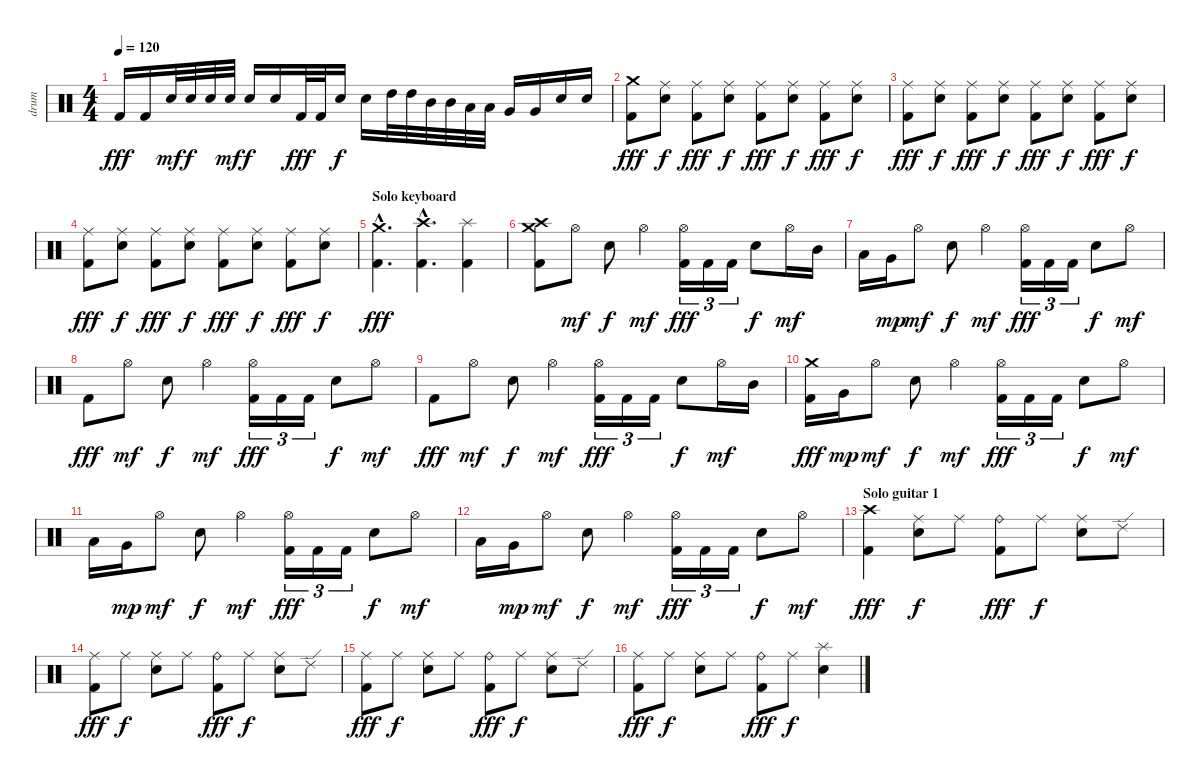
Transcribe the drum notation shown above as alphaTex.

\track ("drum" "drum") {instrument percussion}
\staff {score}
\articulation defaults
\ts (4 4)
\tempo 120
\clef neutral
\ks c "Kick (hit) 2".16{dy fff} "Kick (hit) 2".16 "Electric Snare (hit)".32{dy mf} "Electric Snare (hit)".32{dy f} "Electric Snare (hit)".32 "Electric Snare (hit)".32{dy mf} "Electric Snare (hit)".16{dy f} "Electric Snare (hit)".16 "Kick (hit) 2".32{dy fff} "Kick (hit) 2".32 "Electric Snare (hit)".16{dy f} "Electric Snare (hit)".16 "High Tom (hit)".32 "High Tom (hit)".32 "Mid Tom (hit)".32 "Mid Tom (hit)".32 "Low Tom (hit)".32 "Low Tom (hit)".32 "Very Low Tom (hit)".16 "Very Low Tom (hit)".16 "Electric Snare (hit)".16 "Electric Snare (hit)".16
|
("Crash medium (hit)" "Kick (hit) 2").8{dy fff} ("Ride (middle)" "Electric Snare (hit)").8{dy f} ("Ride (middle)" "Kick (hit) 2").8{dy fff} ("Ride (middle)" "Electric Snare (hit)").8{dy f} ("Ride (middle)" "Kick (hit) 2").8{dy fff} ("Ride (middle)" "Electric Snare (hit)").8{dy f} ("Ride (middle)" "Kick (hit) 2").8{dy fff} ("Ride (middle)" "Electric Snare (hit)").8{dy f} |
("Ride (middle)" "Kick (hit) 2").8{dy fff} ("Ride (middle)" "Electric Snare (hit)").8{dy f} ("Ride (middle)" "Kick (hit) 2").8{dy fff} ("Ride (middle)" "Electric Snare (hit)").8{dy f} ("Ride (middle)" "Kick (hit) 2").8{dy fff} ("Ride (middle)" "Electric Snare (hit)").8{dy f} ("Ride (middle)" "Kick (hit) 2").8{dy fff} ("Ride (middle)" "Electric Snare (hit)").8{dy f} |
("Ride (middle)" "Kick (hit) 2").8{dy fff} ("Ride (middle)" "Electric Snare (hit)").8{dy f} ("Ride (middle)" "Kick (hit) 2").8{dy fff} ("Ride (middle)" "Electric Snare (hit)").8{dy f} ("Ride (middle)" "Kick (hit) 2").8{dy fff} ("Ride (middle)" "Electric Snare (hit)").8{dy f} ("Ride (middle)" "Kick (hit) 2").8{dy fff} ("Ride (middle)" "Electric Snare (hit)").8{dy f} |
\section ("" "Solo keyboard")
("Crash medium (hit)"{hac} "Kick (hit) 2"{hac}).4{d dy fff} ("Crash high (hit)"{hac} "Kick (hit) 2"{hac}).4{d} ("Splash (hit)" "Kick (hit) 2").4 |
("Crash high (hit)" "Crash medium (hit)" "Kick (hit) 2").8 "Hi-Hat (open)".8{dy mf} "Electric Snare (hit)".8{dy f} "Hi-Hat (open)".4{dy mf} ("Hi-Hat (open)" "Kick (hit) 2").16{tu (3 2) dy fff} "Kick (hit) 2".16{tu (3 2)} "Kick (hit) 2".16{tu (3 2)} "Electric Snare (hit)".8{dy f} "Hi-Hat (open)".16{dy mf} "Mid Tom (hit)".16 |
"Low Tom (hit)".16 "Very Low Tom (hit)".16{dy mp} "Hi-Hat (open)".8{dy mf} "Electric Snare (hit)".8{dy f} "Hi-Hat (open)".4{dy mf} ("Hi-Hat (open)" "Kick (hit) 2").16{tu (3 2) dy fff} "Kick (hit) 2".16{tu (3 2)} "Kick (hit) 2".16{tu (3 2)} "Electric Snare (hit)".8{dy f} "Hi-Hat (open)".8{dy mf} |
"Kick (hit) 2".8{dy fff} "Hi-Hat (open)".8{dy mf} "Electric Snare (hit)".8{dy f} "Hi-Hat (open)".4{dy mf} ("Hi-Hat (open)" "Kick (hit) 2").16{tu (3 2) dy fff} "Kick (hit) 2".16{tu (3 2)} "Kick (hit) 2".16{tu (3 2)} "Electric Snare (hit)".8{dy f} "Hi-Hat (open)".8{dy mf} |
"Kick (hit) 2".8{dy fff} "Hi-Hat (open)".8{dy mf} "Electric Snare (hit)".8{dy f} "Hi-Hat (open)".4{dy mf} ("Hi-Hat (open)" "Kick (hit) 2").16{tu (3 2) dy fff} "Kick (hit) 2".16{tu (3 2)} "Kick (hit) 2".16{tu (3 2)} "Electric Snare (hit)".8{dy f} "Hi-Hat (open)".16{dy mf} "Mid Tom (hit)".16 |
("Crash medium (hit)" "Kick (hit) 2").16{dy fff} "Very Low Tom (hit)".16{dy mp} "Hi-Hat (open)".8{dy mf} "Electric Snare (hit)".8{dy f} "Hi-Hat (open)".4{dy mf} ("Hi-Hat (open)" "Kick (hit) 2").16{tu (3 2) dy fff} "Kick (hit) 2".16{tu (3 2)} "Kick (hit) 2".16{tu (3 2)} "Electric Snare (hit)".8{dy f} "Hi-Hat (open)".8{dy mf} |
"Low Tom (hit)".16 "Very Low Tom (hit)".16{dy mp} "Hi-Hat (open)".8{dy mf} "Electric Snare (hit)".8{dy f} "Hi-Hat (open)".4{dy mf} ("Hi-Hat (open)" "Kick (hit) 2").16{tu (3 2) dy fff} "Kick (hit) 2".16{tu (3 2)} "Kick (hit) 2".16{tu (3 2)} "Electric Snare (hit)".8{dy f} "Hi-Hat (open)".8{dy mf} |
"Low Tom (hit)".16 "Very Low Tom (hit)".16{dy mp} "Hi-Hat (open)".8{dy mf} "Electric Snare (hit)".8{dy f} "Hi-Hat (open)".4{dy mf} ("Hi-Hat (open)" "Kick (hit) 2").16{tu (3 2) dy fff} "Kick (hit) 2".16{tu (3 2)} "Kick (hit) 2".16{tu (3 2)} "Electric Snare (hit)".8{dy f} "Hi-Hat (open)".8{dy mf} |
\section ("" "Solo guitar 1")
("Crash high (hit)" "Kick (hit) 2").4{dy fff} ("Ride (middle)" "Electric Snare (hit)").8{dy f} "Ride (middle)".8 ("Ride (bell)" "Kick (hit) 2").8{dy fff} "Ride (middle)".8{dy f} ("Ride (middle)" "Electric Snare (hit)").8 "Ride (edge) 2".8 |
("Ride (middle)" "Kick (hit) 2").8{dy fff} "Ride (middle)".8{dy f} ("Ride (middle)" "Electric Snare (hit)").8 "Ride (middle)".8 ("Ride (bell)" "Kick (hit) 2").8{dy fff} "Ride (middle)".8{dy f} ("Ride (middle)" "Electric Snare (hit)").8 "Ride (edge) 2".8 |
("Ride (middle)" "Kick (hit) 2").8{dy fff} "Ride (middle)".8{dy f} ("Ride (middle)" "Electric Snare (hit)").8 "Ride (middle)".8 ("Ride (bell)" "Kick (hit) 2").8{dy fff} "Ride (middle)".8{dy f} ("Ride (middle)" "Electric Snare (hit)").8 "Ride (edge) 2".8 |
("Ride (middle)" "Kick (hit) 2").8{dy fff} "Ride (middle)".8{dy f} ("Ride (middle)" "Electric Snare (hit)").8 "Ride (middle)".8 ("Ride (bell)" "Kick (hit) 2").8{dy fff} "Ride (middle)".8{dy f} ("Splash (hit)" "Electric Snare (hit)").4
